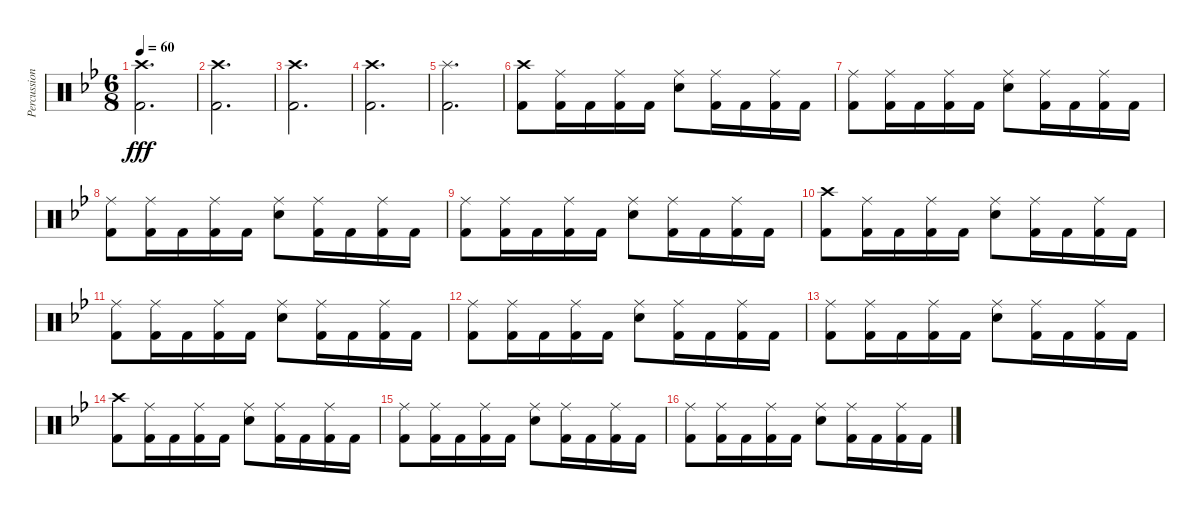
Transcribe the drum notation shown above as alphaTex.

\track ("Percussion" "Percussion") {instrument percussion}
\staff {score}
\articulation defaults
\ts (6 8)
\tempo 60
\clef neutral
\ks gminor
("Crash high (hit)" "Kick (hit) 2").2{d dy fff} |
("Crash high (hit)" "Kick (hit) 2").2{d} |
("Crash high (hit)" "Kick (hit) 2").2{d} |
("Crash high (hit)" "Kick (hit) 2").2{d} |
("Splash (hit)" "Kick (hit) 2").2{d} |
("Crash high (hit)" "Kick (hit) 2").8 ("Ride (middle)" "Kick (hit) 2").16 "Kick (hit) 2".16 ("Ride (middle)" "Kick (hit) 2").16 "Kick (hit) 2".16 ("Ride (middle)" "Electric Snare (hit)").8 ("Ride (middle)" "Kick (hit) 2").16 "Kick (hit) 2".16 ("Ride (middle)" "Kick (hit) 2").16 "Kick (hit) 2".16 |
("Ride (middle)" "Kick (hit) 2").8 ("Ride (middle)" "Kick (hit) 2").16 "Kick (hit) 2".16 ("Ride (middle)" "Kick (hit) 2").16 "Kick (hit) 2".16 ("Ride (middle)" "Electric Snare (hit)").8 ("Ride (middle)" "Kick (hit) 2").16 "Kick (hit) 2".16 ("Ride (middle)" "Kick (hit) 2").16 "Kick (hit) 2".16 |
("Ride (middle)" "Kick (hit) 2").8 ("Ride (middle)" "Kick (hit) 2").16 "Kick (hit) 2".16 ("Ride (middle)" "Kick (hit) 2").16 "Kick (hit) 2".16 ("Ride (middle)" "Electric Snare (hit)").8 ("Ride (middle)" "Kick (hit) 2").16 "Kick (hit) 2".16 ("Ride (middle)" "Kick (hit) 2").16 "Kick (hit) 2".16 |
("Ride (middle)" "Kick (hit) 2").8 ("Ride (middle)" "Kick (hit) 2").16 "Kick (hit) 2".16 ("Ride (middle)" "Kick (hit) 2").16 "Kick (hit) 2".16 ("Ride (middle)" "Electric Snare (hit)").8 ("Ride (middle)" "Kick (hit) 2").16 "Kick (hit) 2".16 ("Ride (middle)" "Kick (hit) 2").16 "Kick (hit) 2".16 |
("Crash high (hit)" "Kick (hit) 2").8 ("Ride (middle)" "Kick (hit) 2").16 "Kick (hit) 2".16 ("Ride (middle)" "Kick (hit) 2").16 "Kick (hit) 2".16 ("Ride (middle)" "Electric Snare (hit)").8 ("Ride (middle)" "Kick (hit) 2").16 "Kick (hit) 2".16 ("Ride (middle)" "Kick (hit) 2").16 "Kick (hit) 2".16 |
("Ride (middle)" "Kick (hit) 2").8 ("Ride (middle)" "Kick (hit) 2").16 "Kick (hit) 2".16 ("Ride (middle)" "Kick (hit) 2").16 "Kick (hit) 2".16 ("Ride (middle)" "Electric Snare (hit)").8 ("Ride (middle)" "Kick (hit) 2").16 "Kick (hit) 2".16 ("Ride (middle)" "Kick (hit) 2").16 "Kick (hit) 2".16 |
("Ride (middle)" "Kick (hit) 2").8 ("Ride (middle)" "Kick (hit) 2").16 "Kick (hit) 2".16 ("Ride (middle)" "Kick (hit) 2").16 "Kick (hit) 2".16 ("Ride (middle)" "Electric Snare (hit)").8 ("Ride (middle)" "Kick (hit) 2").16 "Kick (hit) 2".16 ("Ride (middle)" "Kick (hit) 2").16 "Kick (hit) 2".16 |
("Ride (middle)" "Kick (hit) 2").8 ("Ride (middle)" "Kick (hit) 2").16 "Kick (hit) 2".16 ("Ride (middle)" "Kick (hit) 2").16 "Kick (hit) 2".16 ("Ride (middle)" "Electric Snare (hit)").8 ("Ride (middle)" "Kick (hit) 2").16 "Kick (hit) 2".16 ("Ride (middle)" "Kick (hit) 2").16 "Kick (hit) 2".16 |
("Crash high (hit)" "Kick (hit) 2").8 ("Ride (middle)" "Kick (hit) 2").16 "Kick (hit) 2".16 ("Ride (middle)" "Kick (hit) 2").16 "Kick (hit) 2".16 ("Ride (middle)" "Electric Snare (hit)").8 ("Ride (middle)" "Kick (hit) 2").16 "Kick (hit) 2".16 ("Ride (middle)" "Kick (hit) 2").16 "Kick (hit) 2".16 |
("Ride (middle)" "Kick (hit) 2").8 ("Ride (middle)" "Kick (hit) 2").16 "Kick (hit) 2".16 ("Ride (middle)" "Kick (hit) 2").16 "Kick (hit) 2".16 ("Ride (middle)" "Electric Snare (hit)").8 ("Ride (middle)" "Kick (hit) 2").16 "Kick (hit) 2".16 ("Ride (middle)" "Kick (hit) 2").16 "Kick (hit) 2".16 |
("Ride (middle)" "Kick (hit) 2").8 ("Ride (middle)" "Kick (hit) 2").16 "Kick (hit) 2".16 ("Ride (middle)" "Kick (hit) 2").16 "Kick (hit) 2".16 ("Ride (middle)" "Electric Snare (hit)").8 ("Ride (middle)" "Kick (hit) 2").16 "Kick (hit) 2".16 ("Ride (middle)" "Kick (hit) 2").16 "Kick (hit) 2".16
